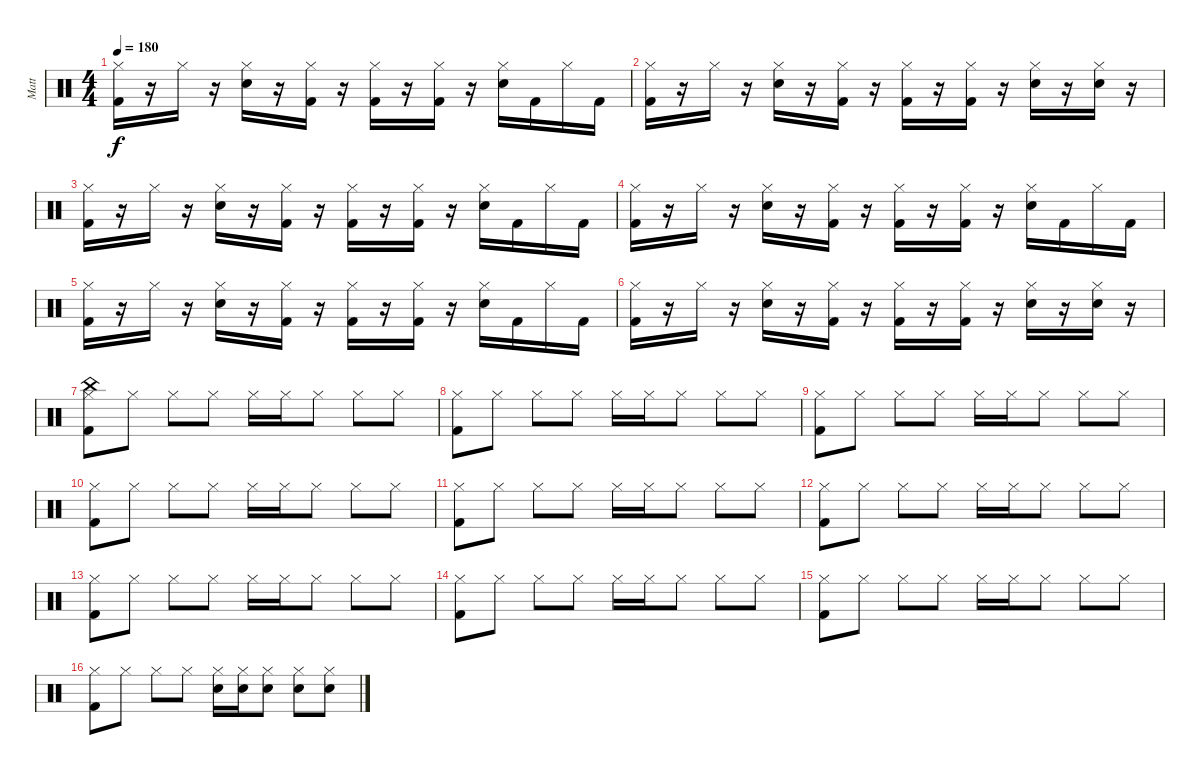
\track ("Matt" "Matt") {instrument percussion}
\staff {score}
\articulation defaults
\ts (4 4)
\tempo 180
\clef neutral
\ks c
("Hi-Hat (closed)" "Kick (hit) 2").16{dy f} r.16 "Hi-Hat (closed)".16 r.16 ("Hi-Hat (closed)" "Snare (hit) 2").16 r.16 ("Hi-Hat (closed)" "Kick (hit) 2").16 r.16 ("Hi-Hat (closed)" "Kick (hit) 2").16 r.16 ("Hi-Hat (closed)" "Kick (hit) 2").16 r.16 ("Hi-Hat (closed)" "Snare (hit) 2").16 "Kick (hit) 2".16 "Hi-Hat (closed)".16 "Kick (hit) 2".16 |
("Hi-Hat (closed)" "Kick (hit) 2").16 r.16 "Hi-Hat (closed)".16 r.16 ("Hi-Hat (closed)" "Snare (hit) 2").16 r.16 ("Hi-Hat (closed)" "Kick (hit) 2").16 r.16 ("Hi-Hat (closed)" "Kick (hit) 2").16 r.16 ("Hi-Hat (closed)" "Kick (hit) 2").16 r.16 ("Hi-Hat (closed)" "Snare (hit) 2").16 r.16 ("Hi-Hat (closed)" "Snare (hit) 2").16 r.16 |
("Hi-Hat (closed)" "Kick (hit) 2").16 r.16 "Hi-Hat (closed)".16 r.16 ("Hi-Hat (closed)" "Snare (hit) 2").16 r.16 ("Hi-Hat (closed)" "Kick (hit) 2").16 r.16 ("Hi-Hat (closed)" "Kick (hit) 2").16 r.16 ("Hi-Hat (closed)" "Kick (hit) 2").16 r.16 ("Hi-Hat (closed)" "Snare (hit) 2").16 "Kick (hit) 2".16 "Hi-Hat (closed)".16 "Kick (hit) 2".16 |
("Hi-Hat (closed)" "Kick (hit) 2").16 r.16 "Hi-Hat (closed)".16 r.16 ("Hi-Hat (closed)" "Snare (hit) 2").16 r.16 ("Hi-Hat (closed)" "Kick (hit) 2").16 r.16 ("Hi-Hat (closed)" "Kick (hit) 2").16 r.16 ("Hi-Hat (closed)" "Kick (hit) 2").16 r.16 ("Hi-Hat (closed)" "Snare (hit) 2").16 "Kick (hit) 2".16 "Hi-Hat (closed)".16 "Kick (hit) 2".16 |
("Hi-Hat (closed)" "Kick (hit) 2").16 r.16 "Hi-Hat (closed)".16 r.16 ("Hi-Hat (closed)" "Snare (hit) 2").16 r.16 ("Hi-Hat (closed)" "Kick (hit) 2").16 r.16 ("Hi-Hat (closed)" "Kick (hit) 2").16 r.16 ("Hi-Hat (closed)" "Kick (hit) 2").16 r.16 ("Hi-Hat (closed)" "Snare (hit) 2").16 "Kick (hit) 2".16 "Hi-Hat (closed)".16 "Kick (hit) 2".16 |
("Hi-Hat (closed)" "Kick (hit) 2").16 r.16 "Hi-Hat (closed)".16 r.16 ("Hi-Hat (closed)" "Snare (hit) 2").16 r.16 ("Hi-Hat (closed)" "Kick (hit) 2").16 r.16 ("Hi-Hat (closed)" "Kick (hit) 2").16 r.16 ("Hi-Hat (closed)" "Kick (hit) 2").16 r.16 ("Hi-Hat (closed)" "Snare (hit) 2").16 r.16 ("Hi-Hat (closed)" "Snare (hit) 2").16 r.16 |
("China (hit)" "Hi-Hat (closed)" "Kick (hit) 2").8 "Hi-Hat (closed)".8 "Hi-Hat (closed)".8 "Hi-Hat (closed)".8 "Hi-Hat (closed)".16 "Hi-Hat (closed)".16 "Hi-Hat (closed)".8 "Hi-Hat (closed)".8 "Hi-Hat (closed)".8 |
("Hi-Hat (closed)" "Kick (hit) 2").8 "Hi-Hat (closed)".8 "Hi-Hat (closed)".8 "Hi-Hat (closed)".8 "Hi-Hat (closed)".16 "Hi-Hat (closed)".16 "Hi-Hat (closed)".8 "Hi-Hat (closed)".8 "Hi-Hat (closed)".8 |
("Hi-Hat (closed)" "Kick (hit) 2").8 "Hi-Hat (closed)".8 "Hi-Hat (closed)".8 "Hi-Hat (closed)".8 "Hi-Hat (closed)".16 "Hi-Hat (closed)".16 "Hi-Hat (closed)".8 "Hi-Hat (closed)".8 "Hi-Hat (closed)".8 |
("Hi-Hat (closed)" "Kick (hit) 2").8 "Hi-Hat (closed)".8 "Hi-Hat (closed)".8 "Hi-Hat (closed)".8 "Hi-Hat (closed)".16 "Hi-Hat (closed)".16 "Hi-Hat (closed)".8 "Hi-Hat (closed)".8 "Hi-Hat (closed)".8 |
("Hi-Hat (closed)" "Kick (hit) 2").8 "Hi-Hat (closed)".8 "Hi-Hat (closed)".8 "Hi-Hat (closed)".8 "Hi-Hat (closed)".16 "Hi-Hat (closed)".16 "Hi-Hat (closed)".8 "Hi-Hat (closed)".8 "Hi-Hat (closed)".8 |
("Hi-Hat (closed)" "Kick (hit) 2").8 "Hi-Hat (closed)".8 "Hi-Hat (closed)".8 "Hi-Hat (closed)".8 "Hi-Hat (closed)".16 "Hi-Hat (closed)".16 "Hi-Hat (closed)".8 "Hi-Hat (closed)".8 "Hi-Hat (closed)".8 |
("Hi-Hat (closed)" "Kick (hit) 2").8 "Hi-Hat (closed)".8 "Hi-Hat (closed)".8 "Hi-Hat (closed)".8 "Hi-Hat (closed)".16 "Hi-Hat (closed)".16 "Hi-Hat (closed)".8 "Hi-Hat (closed)".8 "Hi-Hat (closed)".8 |
("Hi-Hat (closed)" "Kick (hit) 2").8 "Hi-Hat (closed)".8 "Hi-Hat (closed)".8 "Hi-Hat (closed)".8 "Hi-Hat (closed)".16 "Hi-Hat (closed)".16 "Hi-Hat (closed)".8 "Hi-Hat (closed)".8 "Hi-Hat (closed)".8 |
("Hi-Hat (closed)" "Kick (hit) 2").8 "Hi-Hat (closed)".8 "Hi-Hat (closed)".8 "Hi-Hat (closed)".8 "Hi-Hat (closed)".16 "Hi-Hat (closed)".16 "Hi-Hat (closed)".8 "Hi-Hat (closed)".8 "Hi-Hat (closed)".8 |
("Hi-Hat (closed)" "Kick (hit) 2").8 "Hi-Hat (closed)".8 "Hi-Hat (closed)".8 "Hi-Hat (closed)".8 ("Hi-Hat (closed)" "Snare (hit) 2").16 ("Hi-Hat (closed)" "Snare (hit) 2").16 ("Hi-Hat (closed)" "Snare (hit) 2").8 ("Hi-Hat (closed)" "Snare (hit) 2").8 ("Hi-Hat (closed)" "Snare (hit) 2").8
